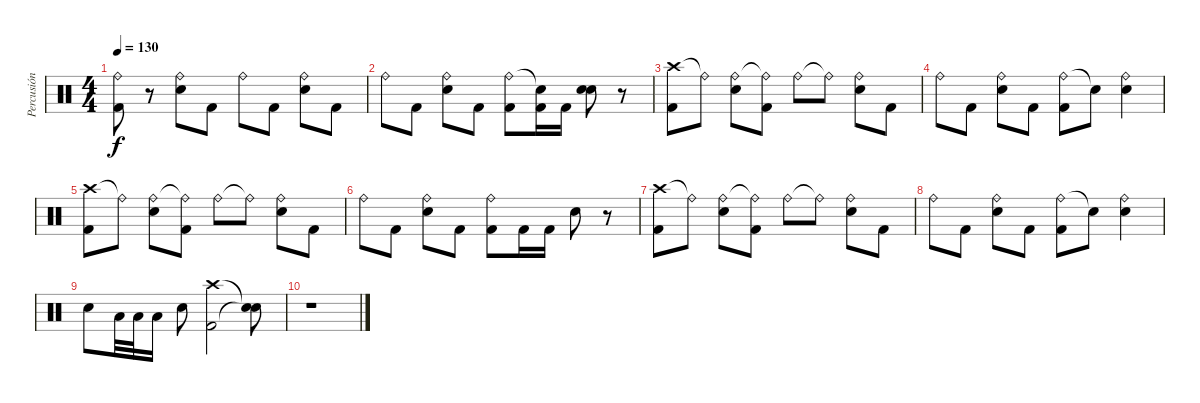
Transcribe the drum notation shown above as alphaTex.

\track ("Percusión" "Percusión") {instrument percussion}
\staff {score}
\articulation defaults
\ts (4 4)
\tempo 130
\clef neutral
\ks c
("Ride (bell)" "Kick (hit) 2").8{dy f} r.8 ("Ride (bell)" "Snare (hit) 2").8 "Kick (hit) 2".8 "Ride (bell)".8 "Kick (hit) 2".8 ("Ride (bell)" "Snare (hit) 2").8 "Kick (hit) 2".8 |
"Ride (bell)".8 "Kick (hit) 2".8 ("Ride (bell)" "Snare (hit) 2").8 "Kick (hit) 2".8 ("Ride (bell)" "Kick (hit) 2").8 ("Snare (hit)"{t} "Kick (hit) 2").16 "Kick (hit) 2".16 ("Snare (hit) 2" "Snare (hit) 2").8 r.8 |
("Crash high (hit)" "Kick (hit) 2").8 "Ride (bell)"{t}.8 ("Ride (bell)" "Snare (hit) 2").8 ("Ride (bell)"{t} "Kick (hit) 2").8 "Ride (bell)".8 "Ride (bell)"{t}.8 ("Ride (bell)" "Snare (hit) 2").8 "Kick (hit) 2".8 |
"Ride (bell)".8 "Kick (hit) 2".8 ("Ride (bell)" "Snare (hit) 2").8 "Kick (hit) 2".8 ("Ride (bell)" "Kick (hit) 2").8 "Snare (hit)"{t}.8 ("Ride (bell)" "Snare (hit) 2").4 |
("Crash high (hit)" "Kick (hit) 2").8 "Ride (bell)"{t}.8 ("Ride (bell)" "Snare (hit) 2").8 ("Ride (bell)"{t} "Kick (hit) 2").8 "Ride (bell)".8 "Ride (bell)"{t}.8 ("Ride (bell)" "Snare (hit) 2").8 "Kick (hit) 2".8 |
"Ride (bell)".8 "Kick (hit) 2".8 ("Ride (bell)" "Snare (hit) 2").8 "Kick (hit) 2".8 ("Ride (bell)" "Kick (hit) 2").8 "Kick (hit) 2".16 "Kick (hit) 2".16 "Snare (hit) 2".8 r.8 |
("Crash high (hit)" "Kick (hit) 2").8 "Ride (bell)"{t}.8 ("Ride (bell)" "Snare (hit) 2").8 ("Ride (bell)"{t} "Kick (hit) 2").8 "Ride (bell)".8 "Ride (bell)"{t}.8 ("Ride (bell)" "Snare (hit) 2").8 "Kick (hit) 2".8 |
"Ride (bell)".8 "Kick (hit) 2".8 ("Ride (bell)" "Snare (hit) 2").8 "Kick (hit) 2".8 ("Ride (bell)" "Kick (hit) 2").8 "Snare (hit)"{t}.8 ("Ride (bell)" "Snare (hit) 2").4 |
"Snare (hit) 2".8 "Low Tom (hit)".32 "Low Tom (hit)".32 "Low Tom (hit)".16 "Snare (hit) 2".8 ("Kick (hit) 2" "Crash high (hit)").2 ("Snare (hit)"{t} "Snare (hit)"{t}).8 |
r.1
